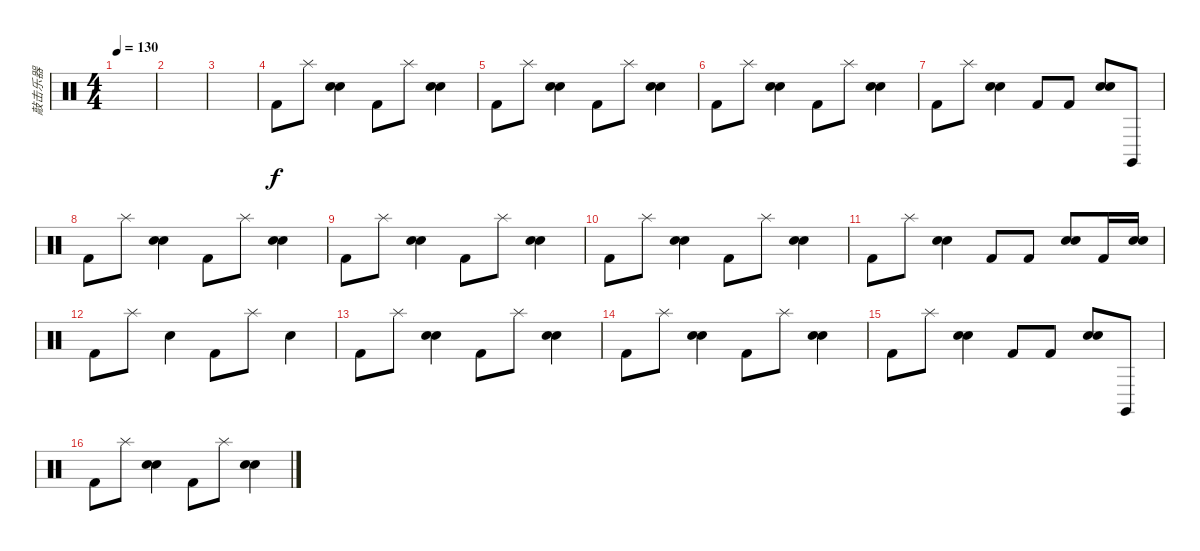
\track ("敲击乐器" "敲击乐器") {instrument percussion}
\staff {score}
\articulation defaults
\ts (4 4)
\tempo 130
\clef neutral
\ks c
|
|
|
"Kick (hit) 2".8 "Splash (hit)".8 ("Electric Snare (hit)" "Snare (hit) 2").4 "Kick (hit) 2".8 "Splash (hit)".8 ("Electric Snare (hit)" "Snare (hit) 2").4 |
"Kick (hit) 2".8 "Splash (hit)".8 ("Electric Snare (hit)" "Snare (hit) 2").4 "Kick (hit) 2".8 "Splash (hit)".8 ("Electric Snare (hit)" "Snare (hit) 2").4 |
"Kick (hit) 2".8 "Splash (hit)".8 ("Electric Snare (hit)" "Snare (hit) 2").4 "Kick (hit) 2".8 "Splash (hit)".8 ("Electric Snare (hit)" "Snare (hit) 2").4 |
"Kick (hit) 2".8 "Splash (hit)".8 ("Electric Snare (hit)" "Snare (hit) 2").4 "Kick (hit) 2".8 "Kick (hit) 2".8 ("Electric Snare (hit)" "Snare (hit) 2").8 "Claves (hit)".8 |
"Kick (hit) 2".8 "Splash (hit)".8 ("Electric Snare (hit)" "Snare (hit) 2").4 "Kick (hit) 2".8 "Splash (hit)".8 ("Electric Snare (hit)" "Snare (hit) 2").4 |
"Kick (hit) 2".8 "Splash (hit)".8 ("Electric Snare (hit)" "Snare (hit) 2").4 "Kick (hit) 2".8 "Splash (hit)".8 ("Electric Snare (hit)" "Snare (hit) 2").4 |
"Kick (hit) 2".8 "Splash (hit)".8 ("Electric Snare (hit)" "Snare (hit) 2").4 "Kick (hit) 2".8 "Splash (hit)".8 ("Electric Snare (hit)" "Snare (hit) 2").4 |
"Kick (hit) 2".8 "Splash (hit)".8 ("Electric Snare (hit)" "Snare (hit) 2").4 "Kick (hit) 2".8 "Kick (hit) 2".8 ("Electric Snare (hit)" "Snare (hit) 2").8 "Kick (hit) 2".16 ("Electric Snare (hit)" "Snare (hit) 2").16 |
"Kick (hit) 2".8 "Splash (hit)".8 "Electric Snare (hit)".4 "Kick (hit) 2".8 "Splash (hit)".8 "Electric Snare (hit)".4 |
"Kick (hit) 2".8 "Splash (hit)".8 ("Electric Snare (hit)" "Snare (hit) 2").4 "Kick (hit) 2".8 "Splash (hit)".8 ("Electric Snare (hit)" "Snare (hit) 2").4 |
"Kick (hit) 2".8 "Splash (hit)".8 ("Electric Snare (hit)" "Snare (hit) 2").4 "Kick (hit) 2".8 "Splash (hit)".8 ("Electric Snare (hit)" "Snare (hit) 2").4 |
"Kick (hit) 2".8 "Splash (hit)".8 ("Electric Snare (hit)" "Snare (hit) 2").4 "Kick (hit) 2".8 "Kick (hit) 2".8 ("Electric Snare (hit)" "Snare (hit) 2").8 "Claves (hit)".8 |
"Kick (hit) 2".8 "Splash (hit)".8 ("Electric Snare (hit)" "Snare (hit) 2").4 "Kick (hit) 2".8 "Splash (hit)".8 ("Electric Snare (hit)" "Snare (hit) 2").4
